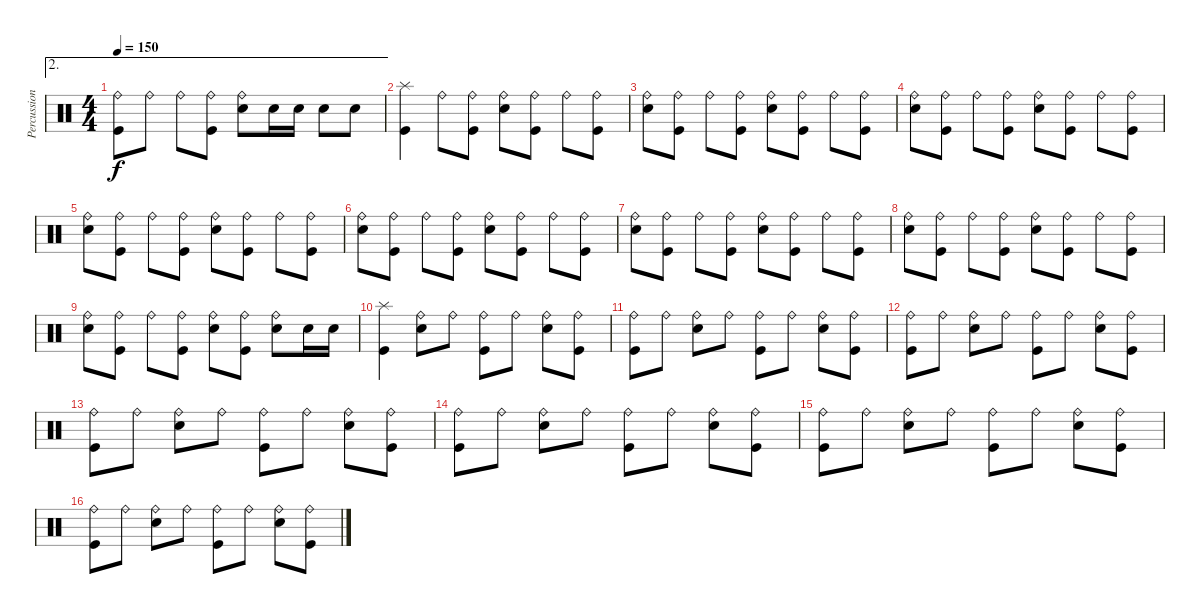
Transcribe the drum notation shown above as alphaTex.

\track ("Percussions" "Percussion") {instrument percussion}
\staff {score}
\articulation defaults
\ae 2
\ts (4 4)
\tempo 150
\clef neutral
\ks c
("Kick (hit)" "Ride (bell)").8{dy f} "Ride (bell)".8 "Ride (bell)".8 ("Kick (hit)" "Ride (bell)").8 ("Electric Snare (hit)" "Ride (bell)").8 "Electric Snare (hit)".16 "Electric Snare (hit)".16 "Electric Snare (hit)".8 "Electric Snare (hit)".8 |
("Kick (hit)" "Splash (hit)").4 "Ride (bell)".8 ("Kick (hit)" "Ride (bell)").8 ("Electric Snare (hit)" "Ride (bell)").8 ("Kick (hit)" "Ride (bell)").8 "Ride (bell)".8 ("Kick (hit)" "Ride (bell)").8 |
("Electric Snare (hit)" "Ride (bell)").8 ("Kick (hit)" "Ride (bell)").8 "Ride (bell)".8 ("Kick (hit)" "Ride (bell)").8 ("Electric Snare (hit)" "Ride (bell)").8 ("Kick (hit)" "Ride (bell)").8 "Ride (bell)".8 ("Kick (hit)" "Ride (bell)").8 |
("Electric Snare (hit)" "Ride (bell)").8 ("Kick (hit)" "Ride (bell)").8 "Ride (bell)".8 ("Kick (hit)" "Ride (bell)").8 ("Electric Snare (hit)" "Ride (bell)").8 ("Kick (hit)" "Ride (bell)").8 "Ride (bell)".8 ("Kick (hit)" "Ride (bell)").8 |
("Electric Snare (hit)" "Ride (bell)").8 ("Kick (hit)" "Ride (bell)").8 "Ride (bell)".8 ("Kick (hit)" "Ride (bell)").8 ("Electric Snare (hit)" "Ride (bell)").8 ("Kick (hit)" "Ride (bell)").8 "Ride (bell)".8 ("Kick (hit)" "Ride (bell)").8 |
("Electric Snare (hit)" "Ride (bell)").8 ("Kick (hit)" "Ride (bell)").8 "Ride (bell)".8 ("Kick (hit)" "Ride (bell)").8 ("Electric Snare (hit)" "Ride (bell)").8 ("Kick (hit)" "Ride (bell)").8 "Ride (bell)".8 ("Kick (hit)" "Ride (bell)").8 |
("Electric Snare (hit)" "Ride (bell)").8 ("Kick (hit)" "Ride (bell)").8 "Ride (bell)".8 ("Kick (hit)" "Ride (bell)").8 ("Electric Snare (hit)" "Ride (bell)").8 ("Kick (hit)" "Ride (bell)").8 "Ride (bell)".8 ("Kick (hit)" "Ride (bell)").8 |
("Electric Snare (hit)" "Ride (bell)").8 ("Kick (hit)" "Ride (bell)").8 "Ride (bell)".8 ("Kick (hit)" "Ride (bell)").8 ("Electric Snare (hit)" "Ride (bell)").8 ("Kick (hit)" "Ride (bell)").8 "Ride (bell)".8 ("Kick (hit)" "Ride (bell)").8 |
("Electric Snare (hit)" "Ride (bell)").8 ("Kick (hit)" "Ride (bell)").8 "Ride (bell)".8 ("Kick (hit)" "Ride (bell)").8 ("Electric Snare (hit)" "Ride (bell)").8 ("Kick (hit)" "Ride (bell)").8 ("Electric Snare (hit)" "Ride (bell)").8 "Electric Snare (hit)".16 "Electric Snare (hit)".16 |
("Kick (hit)" "Splash (hit)").4 ("Electric Snare (hit)" "Ride (bell)").8 "Ride (bell)".8 ("Kick (hit)" "Ride (bell)").8 "Ride (bell)".8 ("Electric Snare (hit)" "Ride (bell)").8 ("Kick (hit)" "Ride (bell)").8 |
("Kick (hit)" "Ride (bell)").8 "Ride (bell)".8 ("Electric Snare (hit)" "Ride (bell)").8 "Ride (bell)".8 ("Kick (hit)" "Ride (bell)").8 "Ride (bell)".8 ("Electric Snare (hit)" "Ride (bell)").8 ("Kick (hit)" "Ride (bell)").8 |
("Kick (hit)" "Ride (bell)").8 "Ride (bell)".8 ("Electric Snare (hit)" "Ride (bell)").8 "Ride (bell)".8 ("Kick (hit)" "Ride (bell)").8 "Ride (bell)".8 ("Electric Snare (hit)" "Ride (bell)").8 ("Kick (hit)" "Ride (bell)").8 |
("Kick (hit)" "Ride (bell)").8 "Ride (bell)".8 ("Electric Snare (hit)" "Ride (bell)").8 "Ride (bell)".8 ("Kick (hit)" "Ride (bell)").8 "Ride (bell)".8 ("Electric Snare (hit)" "Ride (bell)").8 ("Kick (hit)" "Ride (bell)").8 |
("Kick (hit)" "Ride (bell)").8 "Ride (bell)".8 ("Electric Snare (hit)" "Ride (bell)").8 "Ride (bell)".8 ("Kick (hit)" "Ride (bell)").8 "Ride (bell)".8 ("Electric Snare (hit)" "Ride (bell)").8 ("Kick (hit)" "Ride (bell)").8 |
("Kick (hit)" "Ride (bell)").8 "Ride (bell)".8 ("Electric Snare (hit)" "Ride (bell)").8 "Ride (bell)".8 ("Kick (hit)" "Ride (bell)").8 "Ride (bell)".8 ("Electric Snare (hit)" "Ride (bell)").8 ("Kick (hit)" "Ride (bell)").8 |
("Kick (hit)" "Ride (bell)").8 "Ride (bell)".8 ("Electric Snare (hit)" "Ride (bell)").8 "Ride (bell)".8 ("Kick (hit)" "Ride (bell)").8 "Ride (bell)".8 ("Electric Snare (hit)" "Ride (bell)").8 ("Kick (hit)" "Ride (bell)").8
